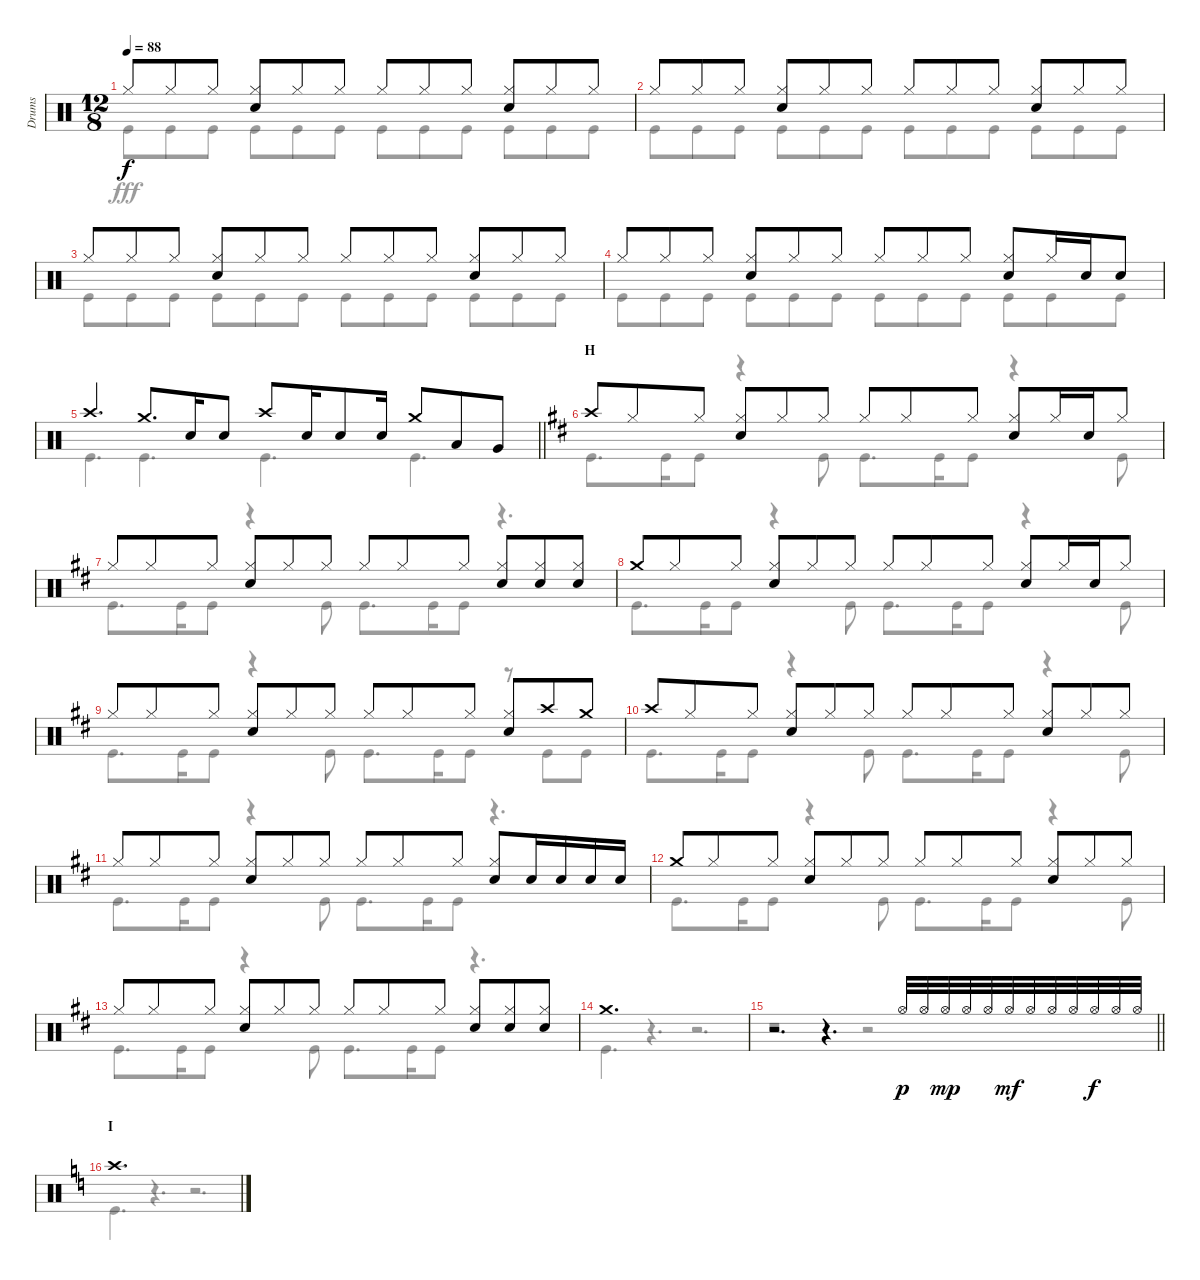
\track ("Drums" "Drums") {instrument percussion}
\staff {score}
\articulation defaults
\voice
\ts (12 8)
\tempo 88
\clef neutral
\ks c "Hi-Hat (closed)".8{dy f} "Hi-Hat (closed)".8 "Hi-Hat (closed)".8
("Hi-Hat (closed)" "Snare (hit) 2").8 "Hi-Hat (closed)".8 "Hi-Hat (closed)".8 "Hi-Hat (closed)".8 "Hi-Hat (closed)".8 "Hi-Hat (closed)".8 ("Hi-Hat (closed)" "Snare (hit) 2").8 "Hi-Hat (closed)".8 "Hi-Hat (closed)".8 |
"Hi-Hat (closed)".8 "Hi-Hat (closed)".8 "Hi-Hat (closed)".8 ("Hi-Hat (closed)" "Snare (hit) 2").8 "Hi-Hat (closed)".8 "Hi-Hat (closed)".8 "Hi-Hat (closed)".8 "Hi-Hat (closed)".8 "Hi-Hat (closed)".8 ("Hi-Hat (closed)" "Snare (hit) 2").8 "Hi-Hat (closed)".8 "Hi-Hat (closed)".8 |
"Hi-Hat (closed)".8 "Hi-Hat (closed)".8 "Hi-Hat (closed)".8 ("Hi-Hat (closed)" "Snare (hit) 2").8 "Hi-Hat (closed)".8 "Hi-Hat (closed)".8 "Hi-Hat (closed)".8 "Hi-Hat (closed)".8 "Hi-Hat (closed)".8 ("Hi-Hat (closed)" "Snare (hit) 2").8 "Hi-Hat (closed)".8 "Hi-Hat (closed)".8 |
"Hi-Hat (closed)".8 "Hi-Hat (closed)".8 "Hi-Hat (closed)".8 ("Hi-Hat (closed)" "Snare (hit) 2").8 "Hi-Hat (closed)".8 "Hi-Hat (closed)".8 "Hi-Hat (closed)".8 "Hi-Hat (closed)".8 "Hi-Hat (closed)".8 ("Hi-Hat (closed)" "Snare (hit) 2").8 "Hi-Hat (closed)".16 "Snare (hit) 2".16 "Snare (hit) 2".8 |
\barLineRight lightlight "Crash high (hit)".4{d} "Crash medium (hit)".8{d} "Snare (hit) 2".16 "Snare (hit) 2".8 "Crash high (hit)".8 "Snare (hit) 2".16 "Snare (hit) 2".8 "Snare (hit) 2".16 "Crash medium (hit)".8 "Low Tom (hit)".8 "Very Low Tom (hit)".8
|
\section ("" "H")
\ks d "Crash high (hit)".8 "Hi-Hat (closed)".8 "Hi-Hat (closed)".8
("Hi-Hat (closed)" "Snare (hit) 2").8 "Hi-Hat (closed)".8 "Hi-Hat (closed)".8 "Hi-Hat (closed)".8 "Hi-Hat (closed)".8 "Hi-Hat (closed)".8 ("Hi-Hat (closed)" "Snare (hit) 2").8 "Hi-Hat (closed)".16 "Snare (hit) 2".16 "Hi-Hat (closed)".8 |
"Hi-Hat (closed)".8 "Hi-Hat (closed)".8 "Hi-Hat (closed)".8 ("Hi-Hat (closed)" "Snare (hit) 2").8 "Hi-Hat (closed)".8 "Hi-Hat (closed)".8 "Hi-Hat (closed)".8 "Hi-Hat (closed)".8 "Hi-Hat (closed)".8 ("Hi-Hat (closed)" "Snare (hit) 2").8 ("Hi-Hat (closed)" "Snare (hit) 2").8 ("Hi-Hat (closed)" "Snare (hit) 2").8 |
"Crash medium (hit)".8 "Hi-Hat (closed)".8 "Hi-Hat (closed)".8 ("Hi-Hat (closed)" "Snare (hit) 2").8 "Hi-Hat (closed)".8 "Hi-Hat (closed)".8 "Hi-Hat (closed)".8 "Hi-Hat (closed)".8 "Hi-Hat (closed)".8 ("Hi-Hat (closed)" "Snare (hit) 2").8 "Hi-Hat (closed)".16 "Snare (hit) 2".16 "Hi-Hat (closed)".8 |
"Hi-Hat (closed)".8 "Hi-Hat (closed)".8 "Hi-Hat (closed)".8 ("Hi-Hat (closed)" "Snare (hit) 2").8 "Hi-Hat (closed)".8 "Hi-Hat (closed)".8 "Hi-Hat (closed)".8 "Hi-Hat (closed)".8 "Hi-Hat (closed)".8 ("Hi-Hat (closed)" "Snare (hit) 2").8 "Crash high (hit)".8 "Crash medium (hit)".8 |
"Crash high (hit)".8 "Hi-Hat (closed)".8 "Hi-Hat (closed)".8 ("Hi-Hat (closed)" "Snare (hit) 2").8 "Hi-Hat (closed)".8 "Hi-Hat (closed)".8 "Hi-Hat (closed)".8 "Hi-Hat (closed)".8 "Hi-Hat (closed)".8 ("Hi-Hat (closed)" "Snare (hit) 2").8 "Hi-Hat (closed)".8 "Hi-Hat (closed)".8 |
"Hi-Hat (closed)".8 "Hi-Hat (closed)".8 "Hi-Hat (closed)".8 ("Hi-Hat (closed)" "Snare (hit) 2").8 "Hi-Hat (closed)".8 "Hi-Hat (closed)".8 "Hi-Hat (closed)".8 "Hi-Hat (closed)".8 "Hi-Hat (closed)".8 ("Hi-Hat (closed)" "Snare (hit) 2").8 "Snare (hit) 2".16 "Snare (hit) 2".16 "Snare (hit) 2".16 "Snare (hit) 2".16 |
"Crash medium (hit)".8 "Hi-Hat (closed)".8 "Hi-Hat (closed)".8 ("Hi-Hat (closed)" "Snare (hit) 2").8 "Hi-Hat (closed)".8 "Hi-Hat (closed)".8 "Hi-Hat (closed)".8 "Hi-Hat (closed)".8 "Hi-Hat (closed)".8 ("Hi-Hat (closed)" "Snare (hit) 2").8 "Hi-Hat (closed)".8 "Hi-Hat (closed)".8 |
"Hi-Hat (closed)".8 "Hi-Hat (closed)".8 "Hi-Hat (closed)".8 ("Hi-Hat (closed)" "Snare (hit) 2").8 "Hi-Hat (closed)".8 "Hi-Hat (closed)".8 "Hi-Hat (closed)".8 "Hi-Hat (closed)".8 "Hi-Hat (closed)".8 ("Hi-Hat (closed)" "Snare (hit) 2").8 ("Hi-Hat (closed)" "Snare (hit) 2").8 ("Hi-Hat (closed)" "Snare (hit) 2").8 |
"Crash medium (hit)".1{d} |
\barLineRight lightlight
r.2{d} r.4{d} "Hi-Hat (open)".32{dy p} "Hi-Hat (open)".32 "Hi-Hat (open)".32{dy mp} "Hi-Hat (open)".32 "Hi-Hat (open)".32 "Hi-Hat (open)".32{dy mf} "Hi-Hat (open)".32 "Hi-Hat (open)".32 "Hi-Hat (open)".32 "Hi-Hat (open)".32{dy f} "Hi-Hat (open)".32 "Hi-Hat (open)".32 |
\section ("" "I")
\ks c "Crash high (hit)".1{d}
\voice
\clef neutral
\ottava regular
\simile none
\ks c "Kick (hit)".8{dy fff} "Kick (hit)".8 "Kick (hit)".8 "Kick (hit)".8 "Kick (hit)".8 "Kick (hit)".8 "Kick (hit)".8 "Kick (hit)".8 "Kick (hit)".8 "Kick (hit)".8 "Kick (hit)".8 "Kick (hit)".8
|
"Kick (hit)".8 "Kick (hit)".8 "Kick (hit)".8 "Kick (hit)".8 "Kick (hit)".8 "Kick (hit)".8 "Kick (hit)".8 "Kick (hit)".8 "Kick (hit)".8 "Kick (hit)".8 "Kick (hit)".8 "Kick (hit)".8 |
"Kick (hit)".8 "Kick (hit)".8 "Kick (hit)".8 "Kick (hit)".8 "Kick (hit)".8 "Kick (hit)".8 "Kick (hit)".8 "Kick (hit)".8 "Kick (hit)".8 "Kick (hit)".8 "Kick (hit)".8 "Kick (hit)".8 |
"Kick (hit)".8 "Kick (hit)".8 "Kick (hit)".8 "Kick (hit)".8 "Kick (hit)".8 "Kick (hit)".8 "Kick (hit)".8 "Kick (hit)".8 "Kick (hit)".8 "Kick (hit)".8 "Kick (hit)".8 "Kick (hit)".8 |
\barLineRight lightlight "Kick (hit)".4{d} "Kick (hit)".4{d} "Kick (hit)".4{d} "Kick (hit)".4{d}
|
\ks d "Kick (hit)".8{d} "Kick (hit)".16 "Kick (hit)".8
r.4 "Kick (hit)".8 "Kick (hit)".8{d} "Kick (hit)".16 "Kick (hit)".8 r.4 "Kick (hit)".8 |
"Kick (hit)".8{d} "Kick (hit)".16 "Kick (hit)".8 r.4 "Kick (hit)".8 "Kick (hit)".8{d} "Kick (hit)".16 "Kick (hit)".8 r.4{d} |
"Kick (hit)".8{d} "Kick (hit)".16 "Kick (hit)".8 r.4 "Kick (hit)".8 "Kick (hit)".8{d} "Kick (hit)".16 "Kick (hit)".8 r.4 "Kick (hit)".8 |
"Kick (hit)".8{d} "Kick (hit)".16 "Kick (hit)".8 r.4 "Kick (hit)".8 "Kick (hit)".8{d} "Kick (hit)".16 "Kick (hit)".8 r.8 "Kick (hit)".8 "Kick (hit)".8 |
"Kick (hit)".8{d} "Kick (hit)".16 "Kick (hit)".8 r.4 "Kick (hit)".8 "Kick (hit)".8{d} "Kick (hit)".16 "Kick (hit)".8 r.4 "Kick (hit)".8 |
"Kick (hit)".8{d} "Kick (hit)".16 "Kick (hit)".8 r.4 "Kick (hit)".8 "Kick (hit)".8{d} "Kick (hit)".16 "Kick (hit)".8 r.4{d} |
"Kick (hit)".8{d} "Kick (hit)".16 "Kick (hit)".8 r.4 "Kick (hit)".8 "Kick (hit)".8{d} "Kick (hit)".16 "Kick (hit)".8 r.4 "Kick (hit)".8 |
"Kick (hit)".8{d} "Kick (hit)".16 "Kick (hit)".8 r.4 "Kick (hit)".8 "Kick (hit)".8{d} "Kick (hit)".16 "Kick (hit)".8 r.4{d} |
"Kick (hit)".4{d} r.4{d} r.2{d} |
\barLineRight lightlight
r.1 r.2 |
\ks c "Kick (hit)".4{d}
r.4{d} r.2{d}
